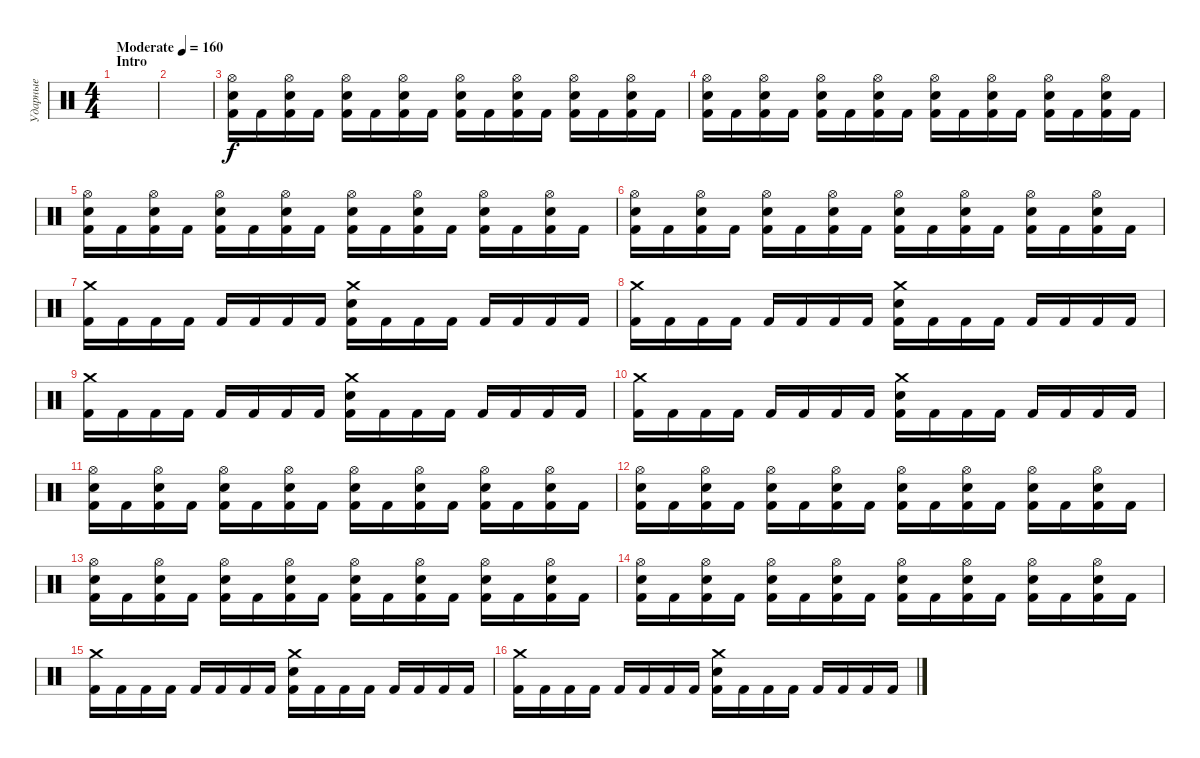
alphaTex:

\track ("Ударные" "Ударные") {instrument percussion}
\staff {score}
\articulation defaults
\ts (4 4)
\section ("" "Intro")
\tempo (160 "Moderate")
\clef neutral
\ks c
|
|
("Kick (hit) 2" "Snare (hit) 2" "Hi-Hat (open)").16 "Kick (hit) 2".16 ("Kick (hit) 2" "Snare (hit) 2" "Hi-Hat (open)").16 "Kick (hit) 2".16 ("Kick (hit) 2" "Snare (hit) 2" "Hi-Hat (open)").16 "Kick (hit) 2".16 ("Kick (hit) 2" "Snare (hit) 2" "Hi-Hat (open)").16 "Kick (hit) 2".16 ("Kick (hit) 2" "Snare (hit) 2" "Hi-Hat (open)").16 "Kick (hit) 2".16 ("Kick (hit) 2" "Snare (hit) 2" "Hi-Hat (open)").16 "Kick (hit) 2".16 ("Kick (hit) 2" "Snare (hit) 2" "Hi-Hat (open)").16 "Kick (hit) 2".16 ("Kick (hit) 2" "Snare (hit) 2" "Hi-Hat (open)").16 "Kick (hit) 2".16 |
("Kick (hit) 2" "Snare (hit) 2" "Hi-Hat (open)").16 "Kick (hit) 2".16 ("Kick (hit) 2" "Snare (hit) 2" "Hi-Hat (open)").16 "Kick (hit) 2".16 ("Kick (hit) 2" "Snare (hit) 2" "Hi-Hat (open)").16 "Kick (hit) 2".16 ("Kick (hit) 2" "Snare (hit) 2" "Hi-Hat (open)").16 "Kick (hit) 2".16 ("Kick (hit) 2" "Snare (hit) 2" "Hi-Hat (open)").16 "Kick (hit) 2".16 ("Kick (hit) 2" "Snare (hit) 2" "Hi-Hat (open)").16 "Kick (hit) 2".16 ("Kick (hit) 2" "Snare (hit) 2" "Hi-Hat (open)").16 "Kick (hit) 2".16 ("Kick (hit) 2" "Snare (hit) 2" "Hi-Hat (open)").16 "Kick (hit) 2".16 |
("Kick (hit) 2" "Snare (hit) 2" "Hi-Hat (open)").16 "Kick (hit) 2".16 ("Kick (hit) 2" "Snare (hit) 2" "Hi-Hat (open)").16 "Kick (hit) 2".16 ("Kick (hit) 2" "Snare (hit) 2" "Hi-Hat (open)").16 "Kick (hit) 2".16 ("Kick (hit) 2" "Snare (hit) 2" "Hi-Hat (open)").16 "Kick (hit) 2".16 ("Kick (hit) 2" "Snare (hit) 2" "Hi-Hat (open)").16 "Kick (hit) 2".16 ("Kick (hit) 2" "Snare (hit) 2" "Hi-Hat (open)").16 "Kick (hit) 2".16 ("Kick (hit) 2" "Snare (hit) 2" "Hi-Hat (open)").16 "Kick (hit) 2".16 ("Kick (hit) 2" "Snare (hit) 2" "Hi-Hat (open)").16 "Kick (hit) 2".16 |
("Kick (hit) 2" "Snare (hit) 2" "Hi-Hat (open)").16 "Kick (hit) 2".16 ("Kick (hit) 2" "Snare (hit) 2" "Hi-Hat (open)").16 "Kick (hit) 2".16 ("Kick (hit) 2" "Snare (hit) 2" "Hi-Hat (open)").16 "Kick (hit) 2".16 ("Kick (hit) 2" "Snare (hit) 2" "Hi-Hat (open)").16 "Kick (hit) 2".16 ("Kick (hit) 2" "Snare (hit) 2" "Hi-Hat (open)").16 "Kick (hit) 2".16 ("Kick (hit) 2" "Snare (hit) 2" "Hi-Hat (open)").16 "Kick (hit) 2".16 ("Kick (hit) 2" "Snare (hit) 2" "Hi-Hat (open)").16 "Kick (hit) 2".16 ("Kick (hit) 2" "Snare (hit) 2" "Hi-Hat (open)").16 "Kick (hit) 2".16 |
("Kick (hit) 2" "Crash medium (hit)").16 "Kick (hit) 2".16 "Kick (hit) 2".16 "Kick (hit) 2".16 "Kick (hit) 2".16 "Kick (hit) 2".16 "Kick (hit) 2".16 "Kick (hit) 2".16 ("Kick (hit) 2" "Crash medium (hit)" "Snare (hit) 2").16 "Kick (hit) 2".16 "Kick (hit) 2".16 "Kick (hit) 2".16 "Kick (hit) 2".16 "Kick (hit) 2".16 "Kick (hit) 2".16 "Kick (hit) 2".16 |
("Kick (hit) 2" "Crash medium (hit)").16 "Kick (hit) 2".16 "Kick (hit) 2".16 "Kick (hit) 2".16 "Kick (hit) 2".16 "Kick (hit) 2".16 "Kick (hit) 2".16 "Kick (hit) 2".16 ("Kick (hit) 2" "Crash medium (hit)" "Snare (hit) 2").16 "Kick (hit) 2".16 "Kick (hit) 2".16 "Kick (hit) 2".16 "Kick (hit) 2".16 "Kick (hit) 2".16 "Kick (hit) 2".16 "Kick (hit) 2".16 |
("Kick (hit) 2" "Crash medium (hit)").16 "Kick (hit) 2".16 "Kick (hit) 2".16 "Kick (hit) 2".16 "Kick (hit) 2".16 "Kick (hit) 2".16 "Kick (hit) 2".16 "Kick (hit) 2".16 ("Kick (hit) 2" "Crash medium (hit)" "Snare (hit) 2").16 "Kick (hit) 2".16 "Kick (hit) 2".16 "Kick (hit) 2".16 "Kick (hit) 2".16 "Kick (hit) 2".16 "Kick (hit) 2".16 "Kick (hit) 2".16 |
("Kick (hit) 2" "Crash medium (hit)").16 "Kick (hit) 2".16 "Kick (hit) 2".16 "Kick (hit) 2".16 "Kick (hit) 2".16 "Kick (hit) 2".16 "Kick (hit) 2".16 "Kick (hit) 2".16 ("Kick (hit) 2" "Crash medium (hit)" "Snare (hit) 2").16 "Kick (hit) 2".16 "Kick (hit) 2".16 "Kick (hit) 2".16 "Kick (hit) 2".16 "Kick (hit) 2".16 "Kick (hit) 2".16 "Kick (hit) 2".16 |
("Kick (hit) 2" "Snare (hit) 2" "Hi-Hat (open)").16 "Kick (hit) 2".16 ("Kick (hit) 2" "Snare (hit) 2" "Hi-Hat (open)").16 "Kick (hit) 2".16 ("Kick (hit) 2" "Snare (hit) 2" "Hi-Hat (open)").16 "Kick (hit) 2".16 ("Kick (hit) 2" "Snare (hit) 2" "Hi-Hat (open)").16 "Kick (hit) 2".16 ("Kick (hit) 2" "Snare (hit) 2" "Hi-Hat (open)").16 "Kick (hit) 2".16 ("Kick (hit) 2" "Snare (hit) 2" "Hi-Hat (open)").16 "Kick (hit) 2".16 ("Kick (hit) 2" "Snare (hit) 2" "Hi-Hat (open)").16 "Kick (hit) 2".16 ("Kick (hit) 2" "Snare (hit) 2" "Hi-Hat (open)").16 "Kick (hit) 2".16 |
("Kick (hit) 2" "Snare (hit) 2" "Hi-Hat (open)").16 "Kick (hit) 2".16 ("Kick (hit) 2" "Snare (hit) 2" "Hi-Hat (open)").16 "Kick (hit) 2".16 ("Kick (hit) 2" "Snare (hit) 2" "Hi-Hat (open)").16 "Kick (hit) 2".16 ("Kick (hit) 2" "Snare (hit) 2" "Hi-Hat (open)").16 "Kick (hit) 2".16 ("Kick (hit) 2" "Snare (hit) 2" "Hi-Hat (open)").16 "Kick (hit) 2".16 ("Kick (hit) 2" "Snare (hit) 2" "Hi-Hat (open)").16 "Kick (hit) 2".16 ("Kick (hit) 2" "Snare (hit) 2" "Hi-Hat (open)").16 "Kick (hit) 2".16 ("Kick (hit) 2" "Snare (hit) 2" "Hi-Hat (open)").16 "Kick (hit) 2".16 |
("Kick (hit) 2" "Snare (hit) 2" "Hi-Hat (open)").16 "Kick (hit) 2".16 ("Kick (hit) 2" "Snare (hit) 2" "Hi-Hat (open)").16 "Kick (hit) 2".16 ("Kick (hit) 2" "Snare (hit) 2" "Hi-Hat (open)").16 "Kick (hit) 2".16 ("Kick (hit) 2" "Snare (hit) 2" "Hi-Hat (open)").16 "Kick (hit) 2".16 ("Kick (hit) 2" "Snare (hit) 2" "Hi-Hat (open)").16 "Kick (hit) 2".16 ("Kick (hit) 2" "Snare (hit) 2" "Hi-Hat (open)").16 "Kick (hit) 2".16 ("Kick (hit) 2" "Snare (hit) 2" "Hi-Hat (open)").16 "Kick (hit) 2".16 ("Kick (hit) 2" "Snare (hit) 2" "Hi-Hat (open)").16 "Kick (hit) 2".16 |
("Kick (hit) 2" "Snare (hit) 2" "Hi-Hat (open)").16 "Kick (hit) 2".16 ("Kick (hit) 2" "Snare (hit) 2" "Hi-Hat (open)").16 "Kick (hit) 2".16 ("Kick (hit) 2" "Snare (hit) 2" "Hi-Hat (open)").16 "Kick (hit) 2".16 ("Kick (hit) 2" "Snare (hit) 2" "Hi-Hat (open)").16 "Kick (hit) 2".16 ("Kick (hit) 2" "Snare (hit) 2" "Hi-Hat (open)").16 "Kick (hit) 2".16 ("Kick (hit) 2" "Snare (hit) 2" "Hi-Hat (open)").16 "Kick (hit) 2".16 ("Kick (hit) 2" "Snare (hit) 2" "Hi-Hat (open)").16 "Kick (hit) 2".16 ("Kick (hit) 2" "Snare (hit) 2" "Hi-Hat (open)").16 "Kick (hit) 2".16 |
("Kick (hit) 2" "Crash medium (hit)").16 "Kick (hit) 2".16 "Kick (hit) 2".16 "Kick (hit) 2".16 "Kick (hit) 2".16 "Kick (hit) 2".16 "Kick (hit) 2".16 "Kick (hit) 2".16 ("Kick (hit) 2" "Crash medium (hit)" "Snare (hit) 2").16 "Kick (hit) 2".16 "Kick (hit) 2".16 "Kick (hit) 2".16 "Kick (hit) 2".16 "Kick (hit) 2".16 "Kick (hit) 2".16 "Kick (hit) 2".16 |
("Kick (hit) 2" "Crash medium (hit)").16 "Kick (hit) 2".16 "Kick (hit) 2".16 "Kick (hit) 2".16 "Kick (hit) 2".16 "Kick (hit) 2".16 "Kick (hit) 2".16 "Kick (hit) 2".16 ("Kick (hit) 2" "Crash medium (hit)" "Snare (hit) 2").16 "Kick (hit) 2".16 "Kick (hit) 2".16 "Kick (hit) 2".16 "Kick (hit) 2".16 "Kick (hit) 2".16 "Kick (hit) 2".16 "Kick (hit) 2".16
